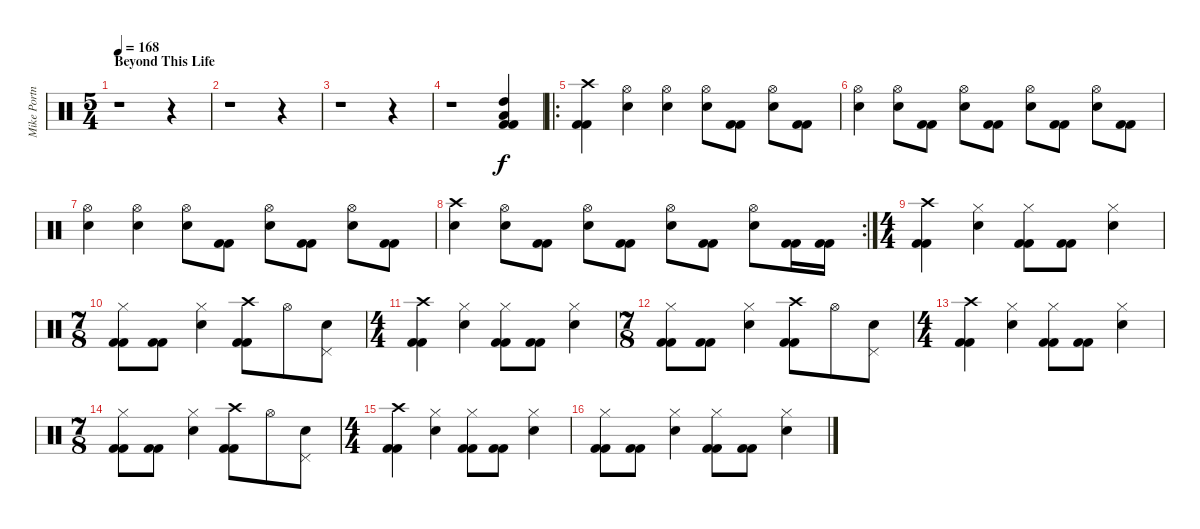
\track ("Mike Portnoy - Drum" "Mike Portn") {instrument percussion}
\staff {score}
\articulation defaults
\ts (5 4)
\section ("" "Beyond This Life")
\tempo 168
\clef neutral
\ks c
r.1{dy f} r.4 |
r.1 r.4 |
r.1 r.4 |
r.1 ("High Tom (hit)" "Low Floor Tom (hit)" "Kick (hit) 2" "Kick (hit) 2").4 |
\ro
("Crash high (hit)" "Kick (hit) 2" "Kick (hit) 2").4 ("Hi-Hat (open)" "Snare (hit) 2").4 ("Hi-Hat (open)" "Snare (hit) 2").4 ("Hi-Hat (open)" "Snare (hit) 2").8 ("Kick (hit) 2" "Kick (hit) 2").8 ("Hi-Hat (open)" "Snare (hit) 2").8 ("Kick (hit) 2" "Kick (hit) 2").8 |
("Hi-Hat (open)" "Snare (hit) 2").4 ("Hi-Hat (open)" "Snare (hit) 2").8 ("Kick (hit) 2" "Kick (hit) 2").8 ("Hi-Hat (open)" "Snare (hit) 2").8 ("Kick (hit) 2" "Kick (hit) 2").8 ("Hi-Hat (open)" "Snare (hit) 2").8 ("Kick (hit) 2" "Kick (hit) 2").8 ("Hi-Hat (open)" "Snare (hit) 2").8 ("Kick (hit) 2" "Kick (hit) 2").8 |
("Hi-Hat (open)" "Snare (hit) 2").4 ("Hi-Hat (open)" "Snare (hit) 2").4 ("Hi-Hat (open)" "Snare (hit) 2").8 ("Kick (hit) 2" "Kick (hit) 2").8 ("Hi-Hat (open)" "Snare (hit) 2").8 ("Kick (hit) 2" "Kick (hit) 2").8 ("Hi-Hat (open)" "Snare (hit) 2").8 ("Kick (hit) 2" "Kick (hit) 2").8 |
\rc 2
("Crash high (hit)" "Snare (hit) 2").4 ("Hi-Hat (open)" "Snare (hit) 2").8 ("Kick (hit) 2" "Kick (hit) 2").8 ("Hi-Hat (open)" "Snare (hit) 2").8 ("Kick (hit) 2" "Kick (hit) 2").8 ("Hi-Hat (open)" "Snare (hit) 2").8 ("Kick (hit) 2" "Kick (hit) 2").8 ("Hi-Hat (open)" "Snare (hit) 2").8 ("Kick (hit) 2" "Kick (hit) 2").16 ("Kick (hit) 2" "Kick (hit) 2").16 |
\ts (4 4)
("Crash high (hit)" "Kick (hit) 2" "Kick (hit) 2").4 ("Hi-Hat (closed)" "Snare (hit) 2").4 ("Hi-Hat (closed)" "Kick (hit) 2" "Kick (hit) 2").8 ("Kick (hit) 2" "Kick (hit) 2").8 ("Hi-Hat (closed)" "Snare (hit) 2").4 |
\ts (7 8)
("Hi-Hat (closed)" "Kick (hit) 2" "Kick (hit) 2").8 ("Kick (hit) 2" "Kick (hit) 2").8 ("Hi-Hat (closed)" "Snare (hit) 2").4 ("Crash high (hit)" "Kick (hit) 2" "Kick (hit) 2").8 "Hi-Hat (open)".8 ("Snare (hit) 2" "Pedal Hi-Hat (hit)").8 |
\ts (4 4)
("Crash high (hit)" "Kick (hit) 2" "Kick (hit) 2").4 ("Hi-Hat (closed)" "Snare (hit) 2").4 ("Hi-Hat (closed)" "Kick (hit) 2" "Kick (hit) 2").8 ("Kick (hit) 2" "Kick (hit) 2").8 ("Hi-Hat (closed)" "Snare (hit) 2").4 |
\ts (7 8)
("Hi-Hat (closed)" "Kick (hit) 2" "Kick (hit) 2").8 ("Kick (hit) 2" "Kick (hit) 2").8 ("Hi-Hat (closed)" "Snare (hit) 2").4 ("Crash high (hit)" "Kick (hit) 2" "Kick (hit) 2").8 "Hi-Hat (open)".8 ("Snare (hit) 2" "Pedal Hi-Hat (hit)").8 |
\ts (4 4)
("Crash high (hit)" "Kick (hit) 2" "Kick (hit) 2").4 ("Hi-Hat (closed)" "Snare (hit) 2").4 ("Hi-Hat (closed)" "Kick (hit) 2" "Kick (hit) 2").8 ("Kick (hit) 2" "Kick (hit) 2").8 ("Hi-Hat (closed)" "Snare (hit) 2").4 |
\ts (7 8)
("Hi-Hat (closed)" "Kick (hit) 2" "Kick (hit) 2").8 ("Kick (hit) 2" "Kick (hit) 2").8 ("Hi-Hat (closed)" "Snare (hit) 2").4 ("Crash high (hit)" "Kick (hit) 2" "Kick (hit) 2").8 "Hi-Hat (open)".8 ("Snare (hit) 2" "Pedal Hi-Hat (hit)").8 |
\ts (4 4)
("Crash high (hit)" "Kick (hit) 2" "Kick (hit) 2").4 ("Hi-Hat (closed)" "Snare (hit) 2").4 ("Hi-Hat (closed)" "Kick (hit) 2" "Kick (hit) 2").8 ("Kick (hit) 2" "Kick (hit) 2").8 ("Hi-Hat (closed)" "Snare (hit) 2").4 |
("Hi-Hat (closed)" "Kick (hit) 2" "Kick (hit) 2").8 ("Kick (hit) 2" "Kick (hit) 2").8 ("Hi-Hat (closed)" "Snare (hit) 2").4 ("Hi-Hat (closed)" "Kick (hit) 2" "Kick (hit) 2").8 ("Kick (hit) 2" "Kick (hit) 2").8 ("Hi-Hat (closed)" "Snare (hit) 2").4
